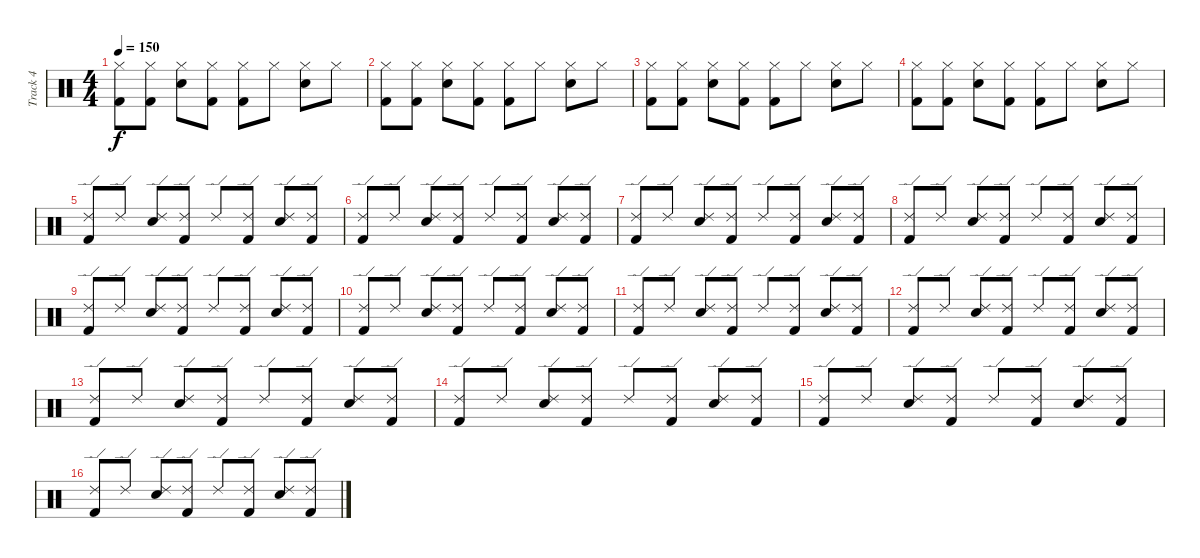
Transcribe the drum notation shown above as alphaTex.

\track ("Track 4" "Track 4") {instrument percussion}
\staff {score}
\articulation defaults
\ts (4 4)
\tempo 150
\clef neutral
\ks c
("Hi-Hat (closed)" "Kick (hit) 2").8{dy f} ("Hi-Hat (closed)" "Kick (hit) 2").8 ("Hi-Hat (closed)" "Snare (hit) 2").8 ("Hi-Hat (closed)" "Kick (hit) 2").8 ("Hi-Hat (closed)" "Kick (hit) 2").8 "Hi-Hat (closed)".8 ("Hi-Hat (closed)" "Snare (hit) 2").8 "Hi-Hat (closed)".8 |
("Hi-Hat (closed)" "Kick (hit) 2").8 ("Hi-Hat (closed)" "Kick (hit) 2").8 ("Hi-Hat (closed)" "Snare (hit) 2").8 ("Hi-Hat (closed)" "Kick (hit) 2").8 ("Hi-Hat (closed)" "Kick (hit) 2").8 "Hi-Hat (closed)".8 ("Hi-Hat (closed)" "Snare (hit) 2").8 "Hi-Hat (closed)".8 |
("Hi-Hat (closed)" "Kick (hit) 2").8 ("Hi-Hat (closed)" "Kick (hit) 2").8 ("Hi-Hat (closed)" "Electric Snare (hit)").8 ("Hi-Hat (closed)" "Kick (hit) 2").8 ("Hi-Hat (closed)" "Kick (hit) 2").8 "Hi-Hat (closed)".8 ("Hi-Hat (closed)" "Electric Snare (hit)").8 "Hi-Hat (closed)".8 |
("Hi-Hat (closed)" "Kick (hit) 2").8 ("Hi-Hat (closed)" "Kick (hit) 2").8 ("Hi-Hat (closed)" "Electric Snare (hit)").8 ("Hi-Hat (closed)" "Kick (hit) 2").8 ("Hi-Hat (closed)" "Kick (hit) 2").8 "Hi-Hat (closed)".8 ("Hi-Hat (closed)" "Electric Snare (hit)").8 "Hi-Hat (closed)".8 |
("Ride (edge) 2" "Kick (hit) 2").8 "Ride (edge) 2".8 ("Ride (edge) 2" "Snare (hit) 2").8 ("Ride (edge) 2" "Kick (hit) 2").8 "Ride (edge) 2".8 ("Ride (edge) 2" "Kick (hit) 2").8 ("Ride (edge) 2" "Snare (hit) 2").8 ("Ride (edge) 2" "Kick (hit) 2").8 |
("Ride (edge) 2" "Kick (hit) 2").8 "Ride (edge) 2".8 ("Ride (edge) 2" "Snare (hit) 2").8 ("Ride (edge) 2" "Kick (hit) 2").8 "Ride (edge) 2".8 ("Ride (edge) 2" "Kick (hit) 2").8 ("Ride (edge) 2" "Snare (hit) 2").8 ("Ride (edge) 2" "Kick (hit) 2").8 |
("Ride (edge) 2" "Kick (hit) 2").8 "Ride (edge) 2".8 ("Ride (edge) 2" "Snare (hit) 2").8 ("Ride (edge) 2" "Kick (hit) 2").8 "Ride (edge) 2".8 ("Ride (edge) 2" "Kick (hit) 2").8 ("Ride (edge) 2" "Snare (hit) 2").8 ("Ride (edge) 2" "Kick (hit) 2").8 |
("Ride (edge) 2" "Kick (hit) 2").8 "Ride (edge) 2".8 ("Ride (edge) 2" "Snare (hit) 2").8 ("Ride (edge) 2" "Kick (hit) 2").8 "Ride (edge) 2".8 ("Ride (edge) 2" "Kick (hit) 2").8 ("Ride (edge) 2" "Snare (hit) 2").8 ("Ride (edge) 2" "Kick (hit) 2").8 |
("Ride (edge) 2" "Kick (hit) 2").8 "Ride (edge) 2".8 ("Ride (edge) 2" "Snare (hit) 2").8 ("Ride (edge) 2" "Kick (hit) 2").8 "Ride (edge) 2".8 ("Ride (edge) 2" "Kick (hit) 2").8 ("Ride (edge) 2" "Snare (hit) 2").8 ("Ride (edge) 2" "Kick (hit) 2").8 |
("Ride (edge) 2" "Kick (hit) 2").8 "Ride (edge) 2".8 ("Ride (edge) 2" "Snare (hit) 2").8 ("Ride (edge) 2" "Kick (hit) 2").8 "Ride (edge) 2".8 ("Ride (edge) 2" "Kick (hit) 2").8 ("Ride (edge) 2" "Snare (hit) 2").8 ("Ride (edge) 2" "Kick (hit) 2").8 |
("Ride (edge) 2" "Kick (hit) 2").8 "Ride (edge) 2".8 ("Ride (edge) 2" "Snare (hit) 2").8 ("Ride (edge) 2" "Kick (hit) 2").8 "Ride (edge) 2".8 ("Ride (edge) 2" "Kick (hit) 2").8 ("Ride (edge) 2" "Snare (hit) 2").8 ("Ride (edge) 2" "Kick (hit) 2").8 |
("Ride (edge) 2" "Kick (hit) 2").8 "Ride (edge) 2".8 ("Ride (edge) 2" "Snare (hit) 2").8 ("Ride (edge) 2" "Kick (hit) 2").8 "Ride (edge) 2".8 ("Ride (edge) 2" "Kick (hit) 2").8 ("Ride (edge) 2" "Snare (hit) 2").8 ("Ride (edge) 2" "Kick (hit) 2").8 |
("Ride (edge) 2" "Kick (hit) 2").8 "Ride (edge) 2".8 ("Ride (edge) 2" "Snare (hit) 2").8 ("Ride (edge) 2" "Kick (hit) 2").8 "Ride (edge) 2".8 ("Ride (edge) 2" "Kick (hit) 2").8 ("Ride (edge) 2" "Snare (hit) 2").8 ("Ride (edge) 2" "Kick (hit) 2").8 |
("Ride (edge) 2" "Kick (hit) 2").8 "Ride (edge) 2".8 ("Ride (edge) 2" "Snare (hit) 2").8 ("Ride (edge) 2" "Kick (hit) 2").8 "Ride (edge) 2".8 ("Ride (edge) 2" "Kick (hit) 2").8 ("Ride (edge) 2" "Snare (hit) 2").8 ("Ride (edge) 2" "Kick (hit) 2").8 |
("Ride (edge) 2" "Kick (hit) 2").8 "Ride (edge) 2".8 ("Ride (edge) 2" "Snare (hit) 2").8 ("Ride (edge) 2" "Kick (hit) 2").8 "Ride (edge) 2".8 ("Ride (edge) 2" "Kick (hit) 2").8 ("Ride (edge) 2" "Snare (hit) 2").8 ("Ride (edge) 2" "Kick (hit) 2").8 |
("Ride (edge) 2" "Kick (hit) 2").8 "Ride (edge) 2".8 ("Ride (edge) 2" "Snare (hit) 2").8 ("Ride (edge) 2" "Kick (hit) 2").8 "Ride (edge) 2".8 ("Ride (edge) 2" "Kick (hit) 2").8 ("Ride (edge) 2" "Snare (hit) 2").8 ("Ride (edge) 2" "Kick (hit) 2").8
